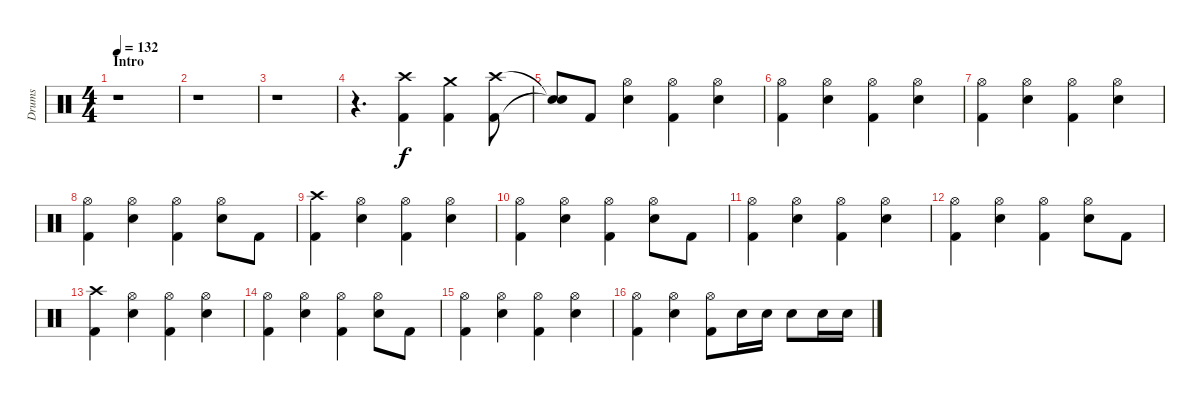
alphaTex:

\track ("Drums" "Drums") {instrument percussion}
\staff {score}
\articulation defaults
\ts (4 4)
\section ("" "Intro")
\tempo 132
\clef neutral
\ks c
r.1{dy f} |
r.1 |
r.1 |
r.4{d} ("Kick (hit) 2" "Crash high (hit)").4 ("Kick (hit) 2" "Crash medium (hit)").4 ("Kick (hit) 2" "Crash high (hit)").8 |
("Snare (hit)"{t} "Snare (hit)"{t}).8 "Kick (hit) 2".8 ("Hi-Hat (open)" "Snare (hit) 2").4 ("Kick (hit) 2" "Hi-Hat (open)").4 ("Hi-Hat (open)" "Snare (hit) 2").4 |
("Kick (hit) 2" "Hi-Hat (open)").4 ("Hi-Hat (open)" "Snare (hit) 2").4 ("Kick (hit) 2" "Hi-Hat (open)").4 ("Hi-Hat (open)" "Snare (hit) 2").4 |
("Kick (hit) 2" "Hi-Hat (open)").4 ("Hi-Hat (open)" "Snare (hit) 2").4 ("Kick (hit) 2" "Hi-Hat (open)").4 ("Hi-Hat (open)" "Snare (hit) 2").4 |
("Kick (hit) 2" "Hi-Hat (open)").4 ("Hi-Hat (open)" "Snare (hit) 2").4 ("Kick (hit) 2" "Hi-Hat (open)").4 ("Hi-Hat (open)" "Snare (hit) 2").8 "Kick (hit) 2".8 |
("Kick (hit) 2" "Crash high (hit)").4 ("Hi-Hat (open)" "Snare (hit) 2").4 ("Kick (hit) 2" "Hi-Hat (open)").4 ("Hi-Hat (open)" "Snare (hit) 2").4 |
("Kick (hit) 2" "Hi-Hat (open)").4 ("Hi-Hat (open)" "Snare (hit) 2").4 ("Kick (hit) 2" "Hi-Hat (open)").4 ("Hi-Hat (open)" "Snare (hit) 2").8 "Kick (hit) 2".8 |
("Kick (hit) 2" "Hi-Hat (open)").4 ("Hi-Hat (open)" "Snare (hit) 2").4 ("Kick (hit) 2" "Hi-Hat (open)").4 ("Hi-Hat (open)" "Snare (hit) 2").4 |
("Kick (hit) 2" "Hi-Hat (open)").4 ("Hi-Hat (open)" "Snare (hit) 2").4 ("Kick (hit) 2" "Hi-Hat (open)").4 ("Hi-Hat (open)" "Snare (hit) 2").8 "Kick (hit) 2".8 |
("Kick (hit) 2" "Crash high (hit)").4 ("Hi-Hat (open)" "Snare (hit) 2").4 ("Kick (hit) 2" "Hi-Hat (open)").4 ("Hi-Hat (open)" "Snare (hit) 2").4 |
("Kick (hit) 2" "Hi-Hat (open)").4 ("Hi-Hat (open)" "Snare (hit) 2").4 ("Kick (hit) 2" "Hi-Hat (open)").4 ("Hi-Hat (open)" "Snare (hit) 2").8 "Kick (hit) 2".8 |
("Kick (hit) 2" "Hi-Hat (open)").4 ("Hi-Hat (open)" "Snare (hit) 2").4 ("Kick (hit) 2" "Hi-Hat (open)").4 ("Hi-Hat (open)" "Snare (hit) 2").4 |
("Kick (hit) 2" "Hi-Hat (open)").4 ("Hi-Hat (open)" "Snare (hit) 2").4 ("Kick (hit) 2" "Hi-Hat (open)").8 "Snare (hit) 2".16 "Snare (hit) 2".16 "Snare (hit) 2".8 "Snare (hit) 2".16 "Snare (hit) 2".16
